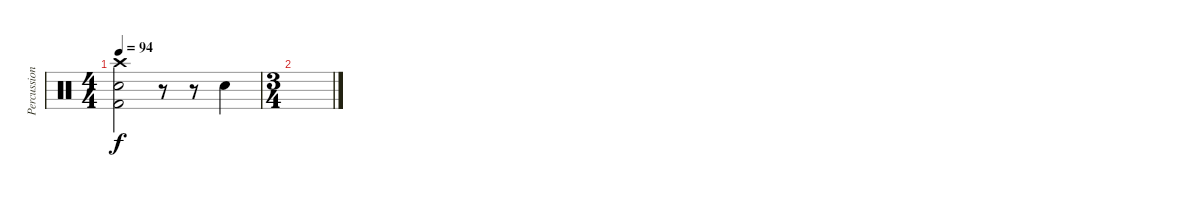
\track ("Percussion" "Percussion") {instrument percussion}
\staff {score}
\articulation defaults
\ts (4 4)
\tempo 94
\clef neutral
\ks c
("Crash high (hit)" "Snare (hit) 2" "Kick (hit) 2").2{dy f} r.8 r.8 "Snare (hit) 2".4 |
\ts (3 4)
